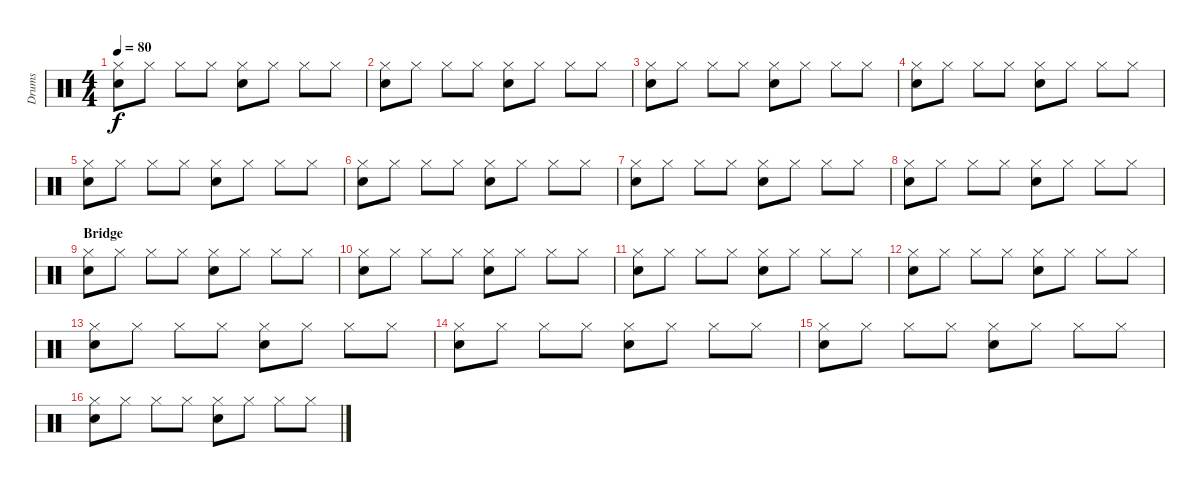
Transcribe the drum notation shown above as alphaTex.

\track ("Drums" "Drums") {instrument percussion}
\staff {score}
\articulation defaults
\ts (4 4)
\tempo 80
\clef neutral
\ks c
("Hi-Hat (closed)" "Snare (hit) 2").8{dy f} "Hi-Hat (closed)".8 "Hi-Hat (closed)".8 "Hi-Hat (closed)".8 ("Hi-Hat (closed)" "Snare (hit) 2").8 "Hi-Hat (closed)".8 "Hi-Hat (closed)".8 "Hi-Hat (closed)".8 |
("Hi-Hat (closed)" "Snare (hit) 2").8 "Hi-Hat (closed)".8 "Hi-Hat (closed)".8 "Hi-Hat (closed)".8 ("Hi-Hat (closed)" "Snare (hit) 2").8 "Hi-Hat (closed)".8 "Hi-Hat (closed)".8 "Hi-Hat (closed)".8 |
("Hi-Hat (closed)" "Snare (hit) 2").8 "Hi-Hat (closed)".8 "Hi-Hat (closed)".8 "Hi-Hat (closed)".8 ("Hi-Hat (closed)" "Snare (hit) 2").8 "Hi-Hat (closed)".8 "Hi-Hat (closed)".8 "Hi-Hat (closed)".8 |
("Hi-Hat (closed)" "Snare (hit) 2").8 "Hi-Hat (closed)".8 "Hi-Hat (closed)".8 "Hi-Hat (closed)".8 ("Hi-Hat (closed)" "Snare (hit) 2").8 "Hi-Hat (closed)".8 "Hi-Hat (closed)".8 "Hi-Hat (closed)".8 |
("Hi-Hat (closed)" "Snare (hit) 2").8 "Hi-Hat (closed)".8 "Hi-Hat (closed)".8 "Hi-Hat (closed)".8 ("Hi-Hat (closed)" "Snare (hit) 2").8 "Hi-Hat (closed)".8 "Hi-Hat (closed)".8 "Hi-Hat (closed)".8 |
("Hi-Hat (closed)" "Snare (hit) 2").8 "Hi-Hat (closed)".8 "Hi-Hat (closed)".8 "Hi-Hat (closed)".8 ("Hi-Hat (closed)" "Snare (hit) 2").8 "Hi-Hat (closed)".8 "Hi-Hat (closed)".8 "Hi-Hat (closed)".8 |
("Hi-Hat (closed)" "Snare (hit) 2").8 "Hi-Hat (closed)".8 "Hi-Hat (closed)".8 "Hi-Hat (closed)".8 ("Hi-Hat (closed)" "Snare (hit) 2").8 "Hi-Hat (closed)".8 "Hi-Hat (closed)".8 "Hi-Hat (closed)".8 |
("Hi-Hat (closed)" "Snare (hit) 2").8 "Hi-Hat (closed)".8 "Hi-Hat (closed)".8 "Hi-Hat (closed)".8 ("Hi-Hat (closed)" "Snare (hit) 2").8 "Hi-Hat (closed)".8 "Hi-Hat (closed)".8 "Hi-Hat (closed)".8 |
\section ("" "Bridge")
("Hi-Hat (closed)" "Snare (hit) 2").8 "Hi-Hat (closed)".8 "Hi-Hat (closed)".8 "Hi-Hat (closed)".8 ("Hi-Hat (closed)" "Snare (hit) 2").8 "Hi-Hat (closed)".8 "Hi-Hat (closed)".8 "Hi-Hat (closed)".8 |
("Hi-Hat (closed)" "Snare (hit) 2").8 "Hi-Hat (closed)".8 "Hi-Hat (closed)".8 "Hi-Hat (closed)".8 ("Hi-Hat (closed)" "Snare (hit) 2").8 "Hi-Hat (closed)".8 "Hi-Hat (closed)".8 "Hi-Hat (closed)".8 |
("Hi-Hat (closed)" "Snare (hit) 2").8 "Hi-Hat (closed)".8 "Hi-Hat (closed)".8 "Hi-Hat (closed)".8 ("Hi-Hat (closed)" "Snare (hit) 2").8 "Hi-Hat (closed)".8 "Hi-Hat (closed)".8 "Hi-Hat (closed)".8 |
("Hi-Hat (closed)" "Snare (hit) 2").8 "Hi-Hat (closed)".8 "Hi-Hat (closed)".8 "Hi-Hat (closed)".8 ("Hi-Hat (closed)" "Snare (hit) 2").8 "Hi-Hat (closed)".8 "Hi-Hat (closed)".8 "Hi-Hat (closed)".8 |
("Hi-Hat (closed)" "Snare (hit) 2").8 "Hi-Hat (closed)".8 "Hi-Hat (closed)".8 "Hi-Hat (closed)".8 ("Hi-Hat (closed)" "Snare (hit) 2").8 "Hi-Hat (closed)".8 "Hi-Hat (closed)".8 "Hi-Hat (closed)".8 |
("Hi-Hat (closed)" "Snare (hit) 2").8 "Hi-Hat (closed)".8 "Hi-Hat (closed)".8 "Hi-Hat (closed)".8 ("Hi-Hat (closed)" "Snare (hit) 2").8 "Hi-Hat (closed)".8 "Hi-Hat (closed)".8 "Hi-Hat (closed)".8 |
("Hi-Hat (closed)" "Snare (hit) 2").8 "Hi-Hat (closed)".8 "Hi-Hat (closed)".8 "Hi-Hat (closed)".8 ("Hi-Hat (closed)" "Snare (hit) 2").8 "Hi-Hat (closed)".8 "Hi-Hat (closed)".8 "Hi-Hat (closed)".8 |
("Hi-Hat (closed)" "Snare (hit) 2").8 "Hi-Hat (closed)".8 "Hi-Hat (closed)".8 "Hi-Hat (closed)".8 ("Hi-Hat (closed)" "Snare (hit) 2").8 "Hi-Hat (closed)".8 "Hi-Hat (closed)".8 "Hi-Hat (closed)".8
